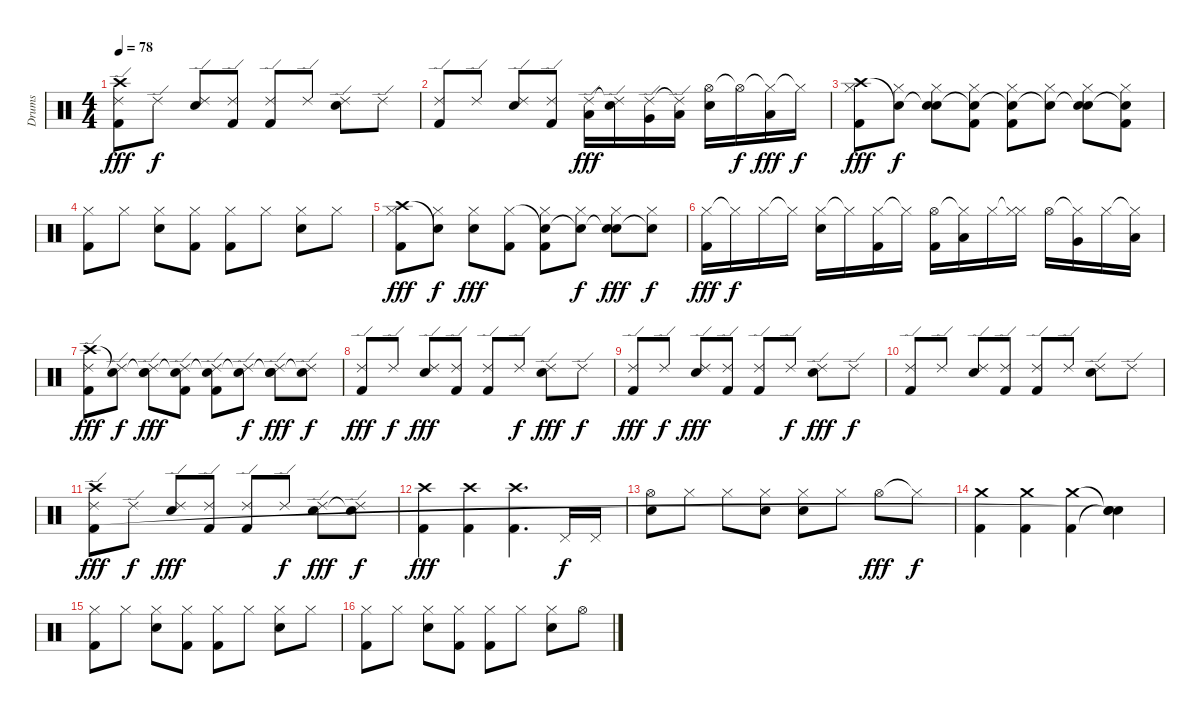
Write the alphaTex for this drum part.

\track ("Drums" "Drums") {instrument percussion}
\staff {score}
\articulation defaults
\ts (4 4)
\tempo 78
\clef neutral
\ks c
("Crash high (hit)" "Ride (edge) 2" "Kick (hit) 2").8{dy fff} "Ride (edge) 2".8{dy f} ("Ride (edge) 2" "Snare (hit) 2").8 ("Ride (edge) 2" "Kick (hit) 2").8 ("Ride (edge) 2" "Kick (hit) 2").8 "Ride (edge) 2".8 ("Ride (edge) 2" "Snare (hit) 2").8 "Ride (edge) 2".8 |
("Ride (edge) 2" "Kick (hit) 2").8 "Ride (edge) 2".8 ("Ride (edge) 2" "Snare (hit) 2").8 ("Ride (edge) 2" "Kick (hit) 2").8 ("Ride (edge) 2" "Low Tom (hit)").16{dy fff} ("Ride (edge) 2"{t} "Electric Snare (hit)").16 ("Ride (edge) 2" "Very Low Tom (hit)").16 ("Ride (edge) 2"{t} "Low Floor Tom (hit)").16 ("Hi-Hat (open)" "Electric Snare (hit)").16 "Hi-Hat (open)"{t}.16{dy f} ("Hi-Hat (closed)"{t} "Low Floor Tom (hit)").16{dy fff} "Hi-Hat (closed)"{t}.16{dy f} |
("Crash high (hit)" "Hi-Hat (closed)" "Kick (hit) 2").8{dy fff} ("Snare (hit)"{t} "Hi-Hat (closed)").8{dy f} ("Snare (hit)"{t} "Hi-Hat (closed)" "Snare (hit) 2").8 ("Snare (hit)"{t} "Hi-Hat (closed)" "Kick (hit) 2").8 ("Snare (hit)"{t} "Hi-Hat (closed)" "Kick (hit) 2").8 ("Snare (hit)"{t} "Hi-Hat (closed)").8 ("Snare (hit)"{t} "Hi-Hat (closed)" "Snare (hit) 2").8 ("Snare (hit)"{t} "Hi-Hat (closed)" "Kick (hit) 2").8 |
("Hi-Hat (closed)" "Kick (hit) 2").8 "Hi-Hat (closed)".8 ("Hi-Hat (closed)" "Snare (hit) 2").8 ("Hi-Hat (closed)" "Kick (hit) 2").8 ("Hi-Hat (closed)" "Kick (hit) 2").8 "Hi-Hat (closed)".8 ("Hi-Hat (closed)" "Snare (hit) 2").8 "Hi-Hat (closed)".8 |
("Crash high (hit)" "Hi-Hat (closed)" "Kick (hit) 2").8{dy fff} ("Snare (hit)"{t} "Hi-Hat (closed)").8{dy f} ("Hi-Hat (closed)" "Snare (hit) 2").8{dy fff} ("Hi-Hat (closed)" "Kick (hit) 2").8 ("Snare (hit)"{t} "Hi-Hat (closed)" "Kick (hit) 2").8 ("Snare (hit)"{t} "Hi-Hat (closed)").8{dy f} ("Snare (hit)"{t} "Hi-Hat (closed)" "Snare (hit) 2").8{dy fff} ("Snare (hit)"{t} "Hi-Hat (closed)").8{dy f} |
("Hi-Hat (closed)" "Kick (hit) 2").16{dy fff} "Hi-Hat (closed)"{t}.16{dy f} "Hi-Hat (closed)".16 "Hi-Hat (closed)"{t}.16 ("Hi-Hat (closed)" "Snare (hit) 2").16 "Hi-Hat (closed)"{t}.16 ("Hi-Hat (closed)" "Kick (hit) 2").16 "Hi-Hat (closed)"{t}.16 ("Hi-Hat (open)" "Kick (hit) 2").16 ("Hi-Hat (closed)"{t} "Low Tom (hit)").16 "Hi-Hat (closed)".16 ("Hi-Hat (closed)"{t} "Hi-Hat (closed)").16 "Hi-Hat (open)".16 ("Hi-Hat (closed)"{t} "Very Low Tom (hit)").16 "Hi-Hat (closed)".16 ("Hi-Hat (closed)"{t} "Low Floor Tom (hit)").16 |
("Crash high (hit)" "Ride (edge) 2" "Kick (hit) 2").8{dy fff} ("Snare (hit)"{t} "Ride (edge) 2").8{dy f} ("Snare (hit)"{t} "Ride (edge) 2" "Snare (hit) 2").8{dy fff} ("Snare (hit)"{t} "Ride (edge) 2" "Kick (hit) 2").8 ("Snare (hit)"{t} "Ride (edge) 2" "Kick (hit) 2").8 ("Snare (hit)"{t} "Ride (edge) 2").8{dy f} ("Snare (hit)"{t} "Ride (edge) 2" "Snare (hit) 2").8{dy fff} ("Snare (hit)"{t} "Ride (edge) 2").8{dy f} |
("Ride (edge) 2" "Kick (hit) 2").8{dy fff} "Ride (edge) 2".8{dy f} ("Ride (edge) 2" "Snare (hit) 2").8{dy fff} ("Ride (edge) 2" "Kick (hit) 2").8 ("Ride (edge) 2" "Kick (hit) 2").8 "Ride (edge) 2".8{dy f} ("Ride (edge) 2" "Snare (hit) 2").8{dy fff} "Ride (edge) 2".8{dy f} |
("Ride (edge) 2" "Kick (hit) 2").8{dy fff} "Ride (edge) 2".8{dy f} ("Ride (edge) 2" "Snare (hit) 2").8{dy fff} ("Ride (edge) 2" "Kick (hit) 2").8 ("Ride (edge) 2" "Kick (hit) 2").8 "Ride (edge) 2".8{dy f} ("Ride (edge) 2" "Snare (hit) 2").8{dy fff} "Ride (edge) 2".8{dy f} |
("Ride (edge) 2" "Kick (hit) 2").8 "Ride (edge) 2".8 ("Ride (edge) 2" "Snare (hit) 2").8 ("Ride (edge) 2" "Kick (hit) 2").8 ("Ride (edge) 2" "Kick (hit) 2").8 "Ride (edge) 2".8 ("Ride (edge) 2" "Snare (hit) 2").8 "Ride (edge) 2".8 |
("Ride (edge) 2" "Crash high (hit)" "Kick (hit) 2").8{dy fff} "Ride (edge) 2".8{dy f} ("Ride (edge) 2" "Snare (hit) 2").8{dy fff} ("Ride (edge) 2" "Kick (hit) 2").8 ("Ride (edge) 2" "Kick (hit) 2").8 "Ride (edge) 2".8{dy f} ("Ride (edge) 2" "Snare (hit) 2").8{dy fff} ("Ride (edge) 2" "Snare (hit)"{t}).8{dy f} |
("Crash high (hit)" "Kick (hit) 2").4{dy fff} ("Crash high (hit)" "Kick (hit) 2").4 ("Crash high (hit)" "Kick (hit) 2").4{d} "Pedal Hi-Hat (hit)".16{dy f} "Pedal Hi-Hat (hit)".16 |
("Hi-Hat (open)" "Electric Snare (hit)").8 "Hi-Hat (closed)".8 "Hi-Hat (closed)".8 ("Hi-Hat (closed)" "Electric Snare (hit)").8 ("Hi-Hat (closed)" "Electric Snare (hit)").8 "Hi-Hat (closed)".8 "Hi-Hat (open)".8{dy fff} "Hi-Hat (closed)"{t}.8{dy f} |
("Crash medium (hit)" "Kick (hit) 2").4 ("Crash medium (hit)" "Kick (hit) 2").4 ("Crash medium (hit)" "Kick (hit) 2").4 ("Snare (hit)"{t} "Snare (hit)"{t} "Snare (hit)"{t}).4 |
("Hi-Hat (closed)" "Kick (hit) 2").8 "Hi-Hat (closed)".8 ("Hi-Hat (closed)" "Snare (hit) 2").8 ("Hi-Hat (closed)" "Kick (hit) 2").8 ("Hi-Hat (closed)" "Kick (hit) 2").8 "Hi-Hat (closed)".8 ("Hi-Hat (closed)" "Snare (hit) 2").8 "Hi-Hat (closed)".8 |
("Hi-Hat (closed)" "Kick (hit) 2").8 "Hi-Hat (closed)".8 ("Hi-Hat (closed)" "Snare (hit) 2").8 ("Hi-Hat (closed)" "Kick (hit) 2").8 ("Hi-Hat (closed)" "Kick (hit) 2").8 "Hi-Hat (closed)".8 ("Hi-Hat (closed)" "Snare (hit) 2").8 "Hi-Hat (open)".8
